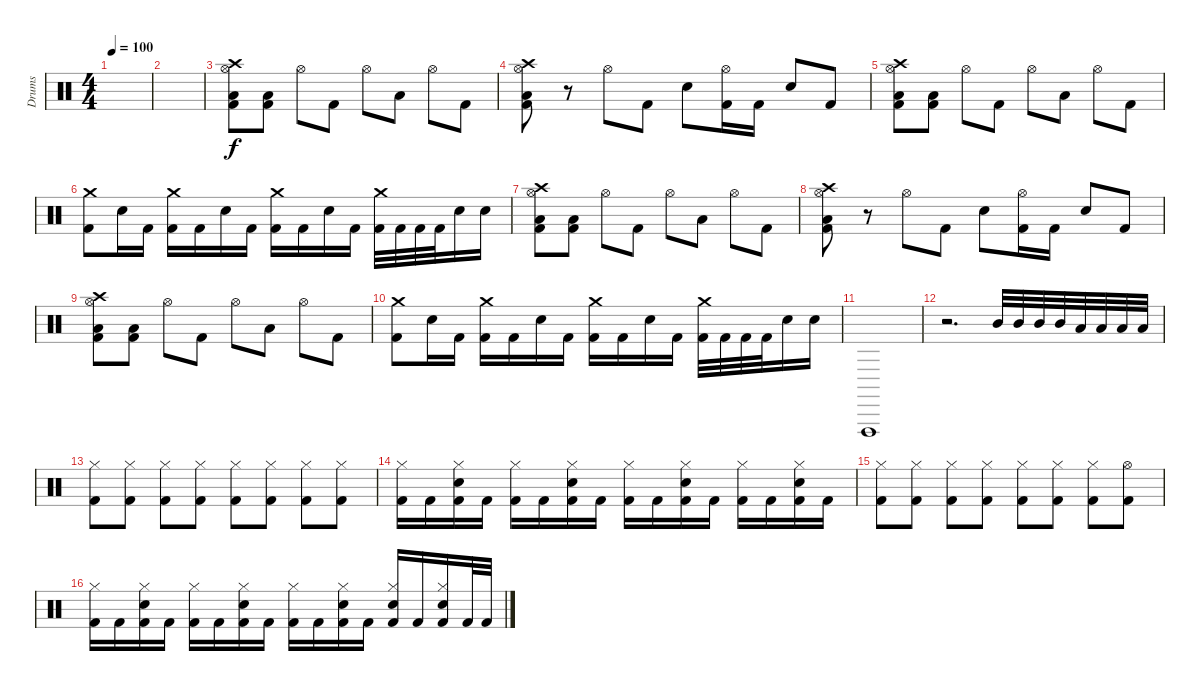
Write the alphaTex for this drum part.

\track ("Drums" "Drums") {instrument percussion}
\staff {score}
\articulation defaults
\ts (4 4)
\tempo 100
\clef neutral
\ks c
|
|
("Crash high (hit)" "Hi-Hat (open)" "Low Floor Tom (hit)" "Kick (hit) 2").8 ("Low Floor Tom (hit)" "Kick (hit) 2").8 "Hi-Hat (open)".8 "Kick (hit) 2".8 "Hi-Hat (open)".8 "Low Floor Tom (hit)".8 "Hi-Hat (open)".8 "Kick (hit) 2".8 |
("Crash high (hit)" "Hi-Hat (open)" "Low Floor Tom (hit)" "Kick (hit) 2").8 r.8 "Hi-Hat (open)".8 "Kick (hit) 2".8 "Electric Snare (hit)".8 ("Hi-Hat (open)" "Kick (hit) 2").16 "Kick (hit) 2".16 "Electric Snare (hit)".8 "Kick (hit) 2".8 |
("Crash high (hit)" "Hi-Hat (open)" "Low Floor Tom (hit)" "Kick (hit) 2").8 ("Low Floor Tom (hit)" "Kick (hit) 2").8 "Hi-Hat (open)".8 "Kick (hit) 2".8 "Hi-Hat (open)".8 "Low Floor Tom (hit)".8 "Hi-Hat (open)".8 "Kick (hit) 2".8 |
("Crash medium (hit)" "Kick (hit) 2").8 "Electric Snare (hit)".16 "Kick (hit) 2".16 ("Crash medium (hit)" "Kick (hit) 2").16 "Kick (hit) 2".16 "Electric Snare (hit)".16 "Kick (hit) 2".16 ("Crash medium (hit)" "Kick (hit) 2").16 "Kick (hit) 2".16 "Electric Snare (hit)".16 "Kick (hit) 2".16 ("Crash medium (hit)" "Kick (hit) 2").32 "Kick (hit) 2".32 "Kick (hit) 2".32 "Kick (hit) 2".32 "Electric Snare (hit)".16 "Electric Snare (hit)".16 |
("Crash high (hit)" "Hi-Hat (open)" "Low Floor Tom (hit)" "Kick (hit) 2").8 ("Low Floor Tom (hit)" "Kick (hit) 2").8 "Hi-Hat (open)".8 "Kick (hit) 2".8 "Hi-Hat (open)".8 "Low Floor Tom (hit)".8 "Hi-Hat (open)".8 "Kick (hit) 2".8 |
("Crash high (hit)" "Hi-Hat (open)" "Low Floor Tom (hit)" "Kick (hit) 2").8 r.8 "Hi-Hat (open)".8 "Kick (hit) 2".8 "Electric Snare (hit)".8 ("Hi-Hat (open)" "Kick (hit) 2").16 "Kick (hit) 2".16 "Electric Snare (hit)".8 "Kick (hit) 2".8 |
("Crash high (hit)" "Hi-Hat (open)" "Low Floor Tom (hit)" "Kick (hit) 2").8 ("Low Floor Tom (hit)" "Kick (hit) 2").8 "Hi-Hat (open)".8 "Kick (hit) 2".8 "Hi-Hat (open)".8 "Low Floor Tom (hit)".8 "Hi-Hat (open)".8 "Kick (hit) 2".8 |
("Crash medium (hit)" "Kick (hit) 2").8 "Electric Snare (hit)".16 "Kick (hit) 2".16 ("Crash medium (hit)" "Kick (hit) 2").16 "Kick (hit) 2".16 "Electric Snare (hit)".16 "Kick (hit) 2".16 ("Crash medium (hit)" "Kick (hit) 2").16 "Kick (hit) 2".16 "Electric Snare (hit)".16 "Kick (hit) 2".16 ("Crash medium (hit)" "Kick (hit) 2").32 "Kick (hit) 2".32 "Kick (hit) 2".32 "Kick (hit) 2".32 "Electric Snare (hit)".16 "Electric Snare (hit)".16 |
"Vibraslap (hit)".1 |
r.2{d} "Mid Tom (hit)".32 "Mid Tom (hit)".32 "Mid Tom (hit)".32 "Mid Tom (hit)".32 "Low Tom (hit)".32 "Low Tom (hit)".32 "Low Tom (hit)".32 "Low Tom (hit)".32 |
("Hi-Hat (closed)" "Kick (hit) 2").8 ("Hi-Hat (closed)" "Kick (hit) 2").8 ("Hi-Hat (closed)" "Kick (hit) 2").8 ("Hi-Hat (closed)" "Kick (hit) 2").8 ("Hi-Hat (closed)" "Kick (hit) 2").8 ("Hi-Hat (closed)" "Kick (hit) 2").8 ("Hi-Hat (closed)" "Kick (hit) 2").8 ("Hi-Hat (closed)" "Kick (hit) 2").8 |
("Hi-Hat (closed)" "Kick (hit) 2").16 "Kick (hit) 2".16 ("Hi-Hat (closed)" "Snare (hit) 2" "Kick (hit) 2").16 "Kick (hit) 2".16 ("Hi-Hat (closed)" "Kick (hit) 2").16 "Kick (hit) 2".16 ("Hi-Hat (closed)" "Snare (hit) 2" "Kick (hit) 2").16 "Kick (hit) 2".16 ("Hi-Hat (closed)" "Kick (hit) 2").16 "Kick (hit) 2".16 ("Hi-Hat (closed)" "Snare (hit) 2" "Kick (hit) 2").16 "Kick (hit) 2".16 ("Hi-Hat (closed)" "Kick (hit) 2").16 "Kick (hit) 2".16 ("Hi-Hat (closed)" "Snare (hit) 2" "Kick (hit) 2").16 "Kick (hit) 2".16 |
("Hi-Hat (closed)" "Kick (hit) 2").8 ("Hi-Hat (closed)" "Kick (hit) 2").8 ("Hi-Hat (closed)" "Kick (hit) 2").8 ("Hi-Hat (closed)" "Kick (hit) 2").8 ("Hi-Hat (closed)" "Kick (hit) 2").8 ("Hi-Hat (closed)" "Kick (hit) 2").8 ("Hi-Hat (closed)" "Kick (hit) 2").8 ("Hi-Hat (open)" "Kick (hit) 2").8 |
("Hi-Hat (closed)" "Kick (hit) 2").16 "Kick (hit) 2".16 ("Hi-Hat (closed)" "Snare (hit) 2" "Kick (hit) 2").16 "Kick (hit) 2".16 ("Hi-Hat (closed)" "Kick (hit) 2").16 "Kick (hit) 2".16 ("Hi-Hat (closed)" "Snare (hit) 2" "Kick (hit) 2").16 "Kick (hit) 2".16 ("Hi-Hat (closed)" "Kick (hit) 2").16 "Kick (hit) 2".16 ("Hi-Hat (closed)" "Snare (hit) 2" "Kick (hit) 2").16 "Kick (hit) 2".16 ("Hi-Hat (closed)" "Snare (hit) 2" "Kick (hit) 2").16 "Kick (hit) 2".16 ("Hi-Hat (closed)" "Snare (hit) 2" "Kick (hit) 2").16 "Kick (hit) 2".32 "Kick (hit) 2".32
